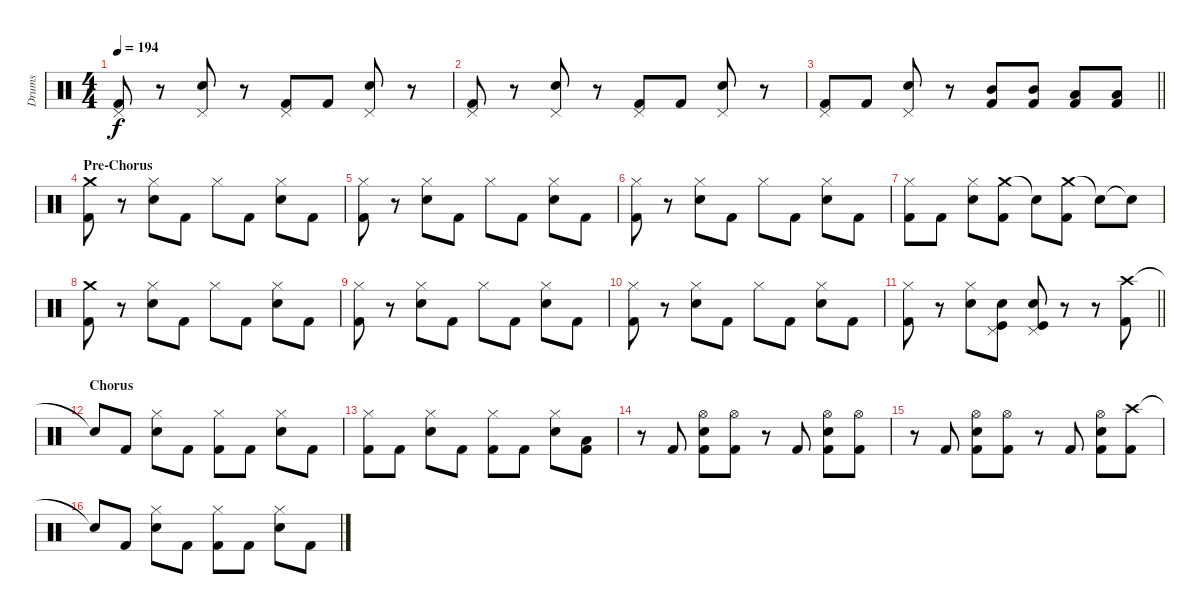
\track ("Drums" "Drums") {instrument percussion}
\staff {score}
\articulation defaults
\ts (4 4)
\tempo 194
\clef neutral
\ks c
("Pedal Hi-Hat (hit)" "Kick (hit) 2").8{dy f} r.8 ("Pedal Hi-Hat (hit)" "Snare (hit) 2").8 r.8 ("Pedal Hi-Hat (hit)" "Kick (hit) 2").8 "Kick (hit) 2".8 ("Pedal Hi-Hat (hit)" "Snare (hit) 2").8 r.8 |
("Pedal Hi-Hat (hit)" "Kick (hit) 2").8 r.8 ("Pedal Hi-Hat (hit)" "Snare (hit) 2").8 r.8 ("Pedal Hi-Hat (hit)" "Kick (hit) 2").8 "Kick (hit) 2".8 ("Pedal Hi-Hat (hit)" "Snare (hit) 2").8 r.8 |
\barLineRight lightlight
("Pedal Hi-Hat (hit)" "Kick (hit) 2").8 "Kick (hit) 2".8 ("Pedal Hi-Hat (hit)" "Snare (hit) 2").8 r.8 ("Mid Tom (hit)" "Kick (hit) 2").8 ("Mid Tom (hit)" "Kick (hit) 2").8 ("Low Tom (hit)" "Kick (hit) 2").8 ("Low Tom (hit)" "Kick (hit) 2").8 |
\section ("" "Pre-Chorus")
("Crash medium (hit)" "Kick (hit) 2").8 r.8 ("Hi-Hat (closed)" "Snare (hit) 2").8 "Kick (hit) 2".8 "Hi-Hat (closed)".8 "Kick (hit) 2".8 ("Hi-Hat (closed)" "Snare (hit) 2").8 "Kick (hit) 2".8 |
("Hi-Hat (closed)" "Kick (hit) 2").8 r.8 ("Hi-Hat (closed)" "Snare (hit) 2").8 "Kick (hit) 2".8 "Hi-Hat (closed)".8 "Kick (hit) 2".8 ("Hi-Hat (closed)" "Snare (hit) 2").8 "Kick (hit) 2".8 |
("Hi-Hat (closed)" "Kick (hit) 2").8 r.8 ("Hi-Hat (closed)" "Snare (hit) 2").8 "Kick (hit) 2".8 "Hi-Hat (closed)".8 "Kick (hit) 2".8 ("Hi-Hat (closed)" "Snare (hit) 2").8 "Kick (hit) 2".8 |
("Hi-Hat (closed)" "Kick (hit) 2").8 "Kick (hit) 2".8 ("Hi-Hat (closed)" "Snare (hit) 2").8 ("Crash medium (hit)" "Kick (hit) 2").8 "Snare (hit)"{t}.8 ("Crash medium (hit)" "Kick (hit) 2").8 "Snare (hit)"{t}.8 "Snare (hit)"{t}.8 |
("Crash medium (hit)" "Kick (hit) 2").8 r.8 ("Hi-Hat (closed)" "Snare (hit) 2").8 "Kick (hit) 2".8 "Hi-Hat (closed)".8 "Kick (hit) 2".8 ("Hi-Hat (closed)" "Snare (hit) 2").8 "Kick (hit) 2".8 |
("Hi-Hat (closed)" "Kick (hit) 2").8 r.8 ("Hi-Hat (closed)" "Snare (hit) 2").8 "Kick (hit) 2".8 "Hi-Hat (closed)".8 "Kick (hit) 2".8 ("Hi-Hat (closed)" "Snare (hit) 2").8 "Kick (hit) 2".8 |
("Hi-Hat (closed)" "Kick (hit) 2").8 r.8 ("Hi-Hat (closed)" "Snare (hit) 2").8 "Kick (hit) 2".8 "Hi-Hat (closed)".8 "Kick (hit) 2".8 ("Hi-Hat (closed)" "Snare (hit) 2").8 "Kick (hit) 2".8 |
\barLineRight lightlight
("Hi-Hat (closed)" "Kick (hit) 2").8 r.8 ("Hi-Hat (closed)" "Snare (hit) 2").8 ("Snare (hit) 2" "Kick (hit)" "Pedal Hi-Hat (hit)").8 ("Snare (hit) 2" "Kick (hit)" "Pedal Hi-Hat (hit)").8 r.8 r.8 ("Crash high (hit)" "Kick (hit) 2").8 |
\section ("" "Chorus")
"Snare (hit)"{t}.8 "Kick (hit) 2".8 ("Hi-Hat (closed)" "Snare (hit) 2").8 "Kick (hit) 2".8 ("Hi-Hat (closed)" "Kick (hit) 2").8 "Kick (hit) 2".8 ("Hi-Hat (closed)" "Snare (hit) 2").8 "Kick (hit) 2".8 |
("Hi-Hat (closed)" "Kick (hit) 2").8 "Kick (hit) 2".8 ("Hi-Hat (closed)" "Snare (hit) 2").8 "Kick (hit) 2".8 ("Hi-Hat (closed)" "Kick (hit) 2").8 "Kick (hit) 2".8 ("Hi-Hat (closed)" "Snare (hit) 2").8 ("Low Tom (hit)" "Kick (hit) 2").8 |
r.8 "Kick (hit) 2".8 ("Hi-Hat (open)" "Snare (hit) 2" "Kick (hit) 2").8 ("Hi-Hat (open)" "Kick (hit) 2").8 r.8 "Kick (hit) 2".8 ("Hi-Hat (open)" "Snare (hit) 2" "Kick (hit) 2").8 ("Hi-Hat (open)" "Kick (hit) 2").8 |
r.8 "Kick (hit) 2".8 ("Hi-Hat (open)" "Snare (hit) 2" "Kick (hit) 2").8 ("Hi-Hat (open)" "Kick (hit) 2").8 r.8 "Kick (hit) 2".8 ("Hi-Hat (open)" "Snare (hit) 2" "Kick (hit) 2").8 ("Crash high (hit)" "Kick (hit) 2").8 |
"Snare (hit)"{t}.8 "Kick (hit) 2".8 ("Hi-Hat (closed)" "Snare (hit) 2").8 "Kick (hit) 2".8 ("Hi-Hat (closed)" "Kick (hit) 2").8 "Kick (hit) 2".8 ("Hi-Hat (closed)" "Snare (hit) 2").8 "Kick (hit) 2".8
